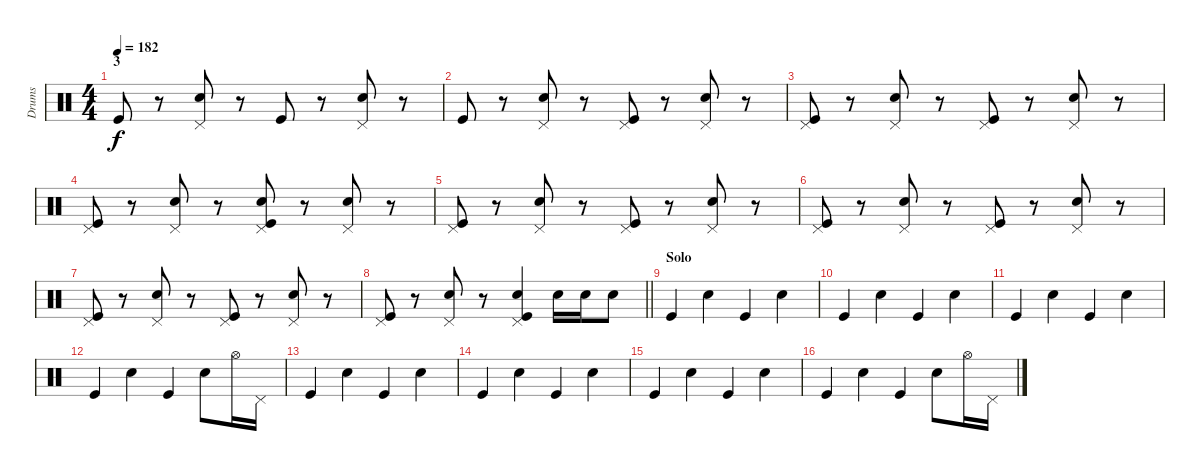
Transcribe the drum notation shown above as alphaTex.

\track ("Drums" "Drums") {instrument percussion}
\staff {score}
\articulation defaults
\ts (4 4)
\section ("" "3")
\tempo 182
\clef neutral
\ks c "Kick (hit)".8{dy f}
r.8 ("Pedal Hi-Hat (hit)" "Electric Snare (hit)").8 r.8 "Kick (hit)".8 r.8 ("Pedal Hi-Hat (hit)" "Electric Snare (hit)").8 r.8 |
"Kick (hit)".8 r.8 ("Pedal Hi-Hat (hit)" "Electric Snare (hit)").8 r.8 ("Pedal Hi-Hat (hit)" "Kick (hit)").8 r.8 ("Pedal Hi-Hat (hit)" "Electric Snare (hit)").8 r.8 |
("Pedal Hi-Hat (hit)" "Kick (hit)").8 r.8 ("Pedal Hi-Hat (hit)" "Electric Snare (hit)").8 r.8 ("Pedal Hi-Hat (hit)" "Kick (hit)").8 r.8 ("Pedal Hi-Hat (hit)" "Electric Snare (hit)").8 r.8 |
("Pedal Hi-Hat (hit)" "Kick (hit)").8 r.8 ("Pedal Hi-Hat (hit)" "Electric Snare (hit)").8 r.8 ("Pedal Hi-Hat (hit)" "Electric Snare (hit)" "Kick (hit)").8 r.8 ("Pedal Hi-Hat (hit)" "Electric Snare (hit)").8 r.8 |
("Pedal Hi-Hat (hit)" "Kick (hit)").8 r.8 ("Pedal Hi-Hat (hit)" "Electric Snare (hit)").8 r.8 ("Pedal Hi-Hat (hit)" "Kick (hit)").8 r.8 ("Pedal Hi-Hat (hit)" "Electric Snare (hit)").8 r.8 |
("Pedal Hi-Hat (hit)" "Kick (hit)").8 r.8 ("Pedal Hi-Hat (hit)" "Electric Snare (hit)").8 r.8 ("Pedal Hi-Hat (hit)" "Kick (hit)").8 r.8 ("Pedal Hi-Hat (hit)" "Electric Snare (hit)").8 r.8 |
("Pedal Hi-Hat (hit)" "Kick (hit)").8 r.8 ("Pedal Hi-Hat (hit)" "Electric Snare (hit)").8 r.8 ("Pedal Hi-Hat (hit)" "Kick (hit)").8 r.8 ("Pedal Hi-Hat (hit)" "Electric Snare (hit)").8 r.8 |
\barLineRight lightlight
("Pedal Hi-Hat (hit)" "Kick (hit)").8 r.8 ("Pedal Hi-Hat (hit)" "Electric Snare (hit)").8 r.8 ("Pedal Hi-Hat (hit)" "Electric Snare (hit)" "Kick (hit)").4 "Electric Snare (hit)".16 "Electric Snare (hit)".16 "Electric Snare (hit)".8 |
\section ("" "Solo")
"Kick (hit)".4 "Electric Snare (hit)".4 "Kick (hit)".4 "Electric Snare (hit)".4 |
"Kick (hit)".4 "Electric Snare (hit)".4 "Kick (hit)".4 "Electric Snare (hit)".4 |
"Kick (hit)".4 "Electric Snare (hit)".4 "Kick (hit)".4 "Electric Snare (hit)".4 |
"Kick (hit)".4 "Electric Snare (hit)".4 "Kick (hit)".4 "Electric Snare (hit)".8 "Hi-Hat (open)".16 "Pedal Hi-Hat (hit)".16 |
"Kick (hit)".4 "Electric Snare (hit)".4 "Kick (hit)".4 "Electric Snare (hit)".4 |
"Kick (hit)".4 "Electric Snare (hit)".4 "Kick (hit)".4 "Electric Snare (hit)".4 |
"Kick (hit)".4 "Electric Snare (hit)".4 "Kick (hit)".4 "Electric Snare (hit)".4 |
"Kick (hit)".4 "Electric Snare (hit)".4 "Kick (hit)".4 "Electric Snare (hit)".8 "Hi-Hat (open)".16 "Pedal Hi-Hat (hit)".16
